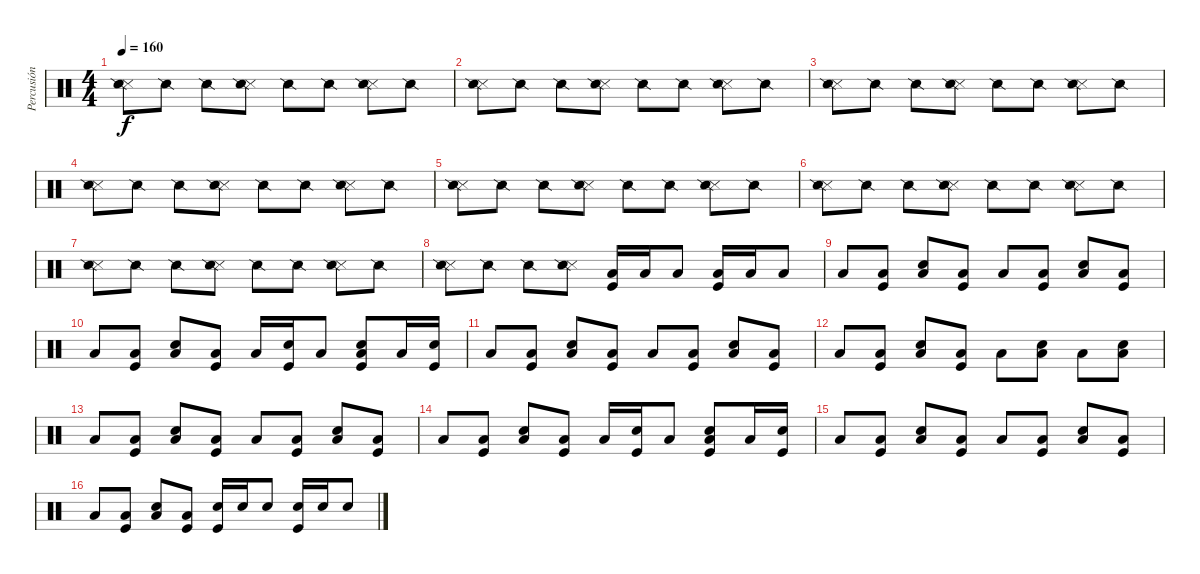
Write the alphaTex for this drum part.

\track ("Percusión" "Percusión") {instrument percussion}
\staff {score}
\articulation defaults
\ts (4 4)
\tempo 160
\clef neutral
\ks c
("Snare (side stick) 3" "Snare (side stick) 2").8{dy f} "Snare (side stick) 2".8 "Snare (side stick) 2".8 ("Snare (side stick) 3" "Snare (side stick) 2").8 "Snare (side stick) 2".8 "Snare (side stick) 2".8 ("Snare (side stick) 3" "Snare (side stick) 2").8 "Snare (side stick) 2".8 |
("Snare (side stick) 3" "Snare (side stick) 2").8 "Snare (side stick) 2".8 "Snare (side stick) 2".8 ("Snare (side stick) 3" "Snare (side stick) 2").8 "Snare (side stick) 2".8 "Snare (side stick) 2".8 ("Snare (side stick) 3" "Snare (side stick) 2").8 "Snare (side stick) 2".8 |
("Snare (side stick) 3" "Snare (side stick) 2").8 "Snare (side stick) 2".8 "Snare (side stick) 2".8 ("Snare (side stick) 3" "Snare (side stick) 2").8 "Snare (side stick) 2".8 "Snare (side stick) 2".8 ("Snare (side stick) 3" "Snare (side stick) 2").8 "Snare (side stick) 2".8 |
("Snare (side stick) 3" "Snare (side stick) 2").8 "Snare (side stick) 2".8 "Snare (side stick) 2".8 ("Snare (side stick) 3" "Snare (side stick) 2").8 "Snare (side stick) 2".8 "Snare (side stick) 2".8 ("Snare (side stick) 3" "Snare (side stick) 2").8 "Snare (side stick) 2".8 |
("Snare (side stick) 3" "Snare (side stick) 2").8 "Snare (side stick) 2".8 "Snare (side stick) 2".8 ("Snare (side stick) 3" "Snare (side stick) 2").8 "Snare (side stick) 2".8 "Snare (side stick) 2".8 ("Snare (side stick) 3" "Snare (side stick) 2").8 "Snare (side stick) 2".8 |
("Snare (side stick) 3" "Snare (side stick) 2").8 "Snare (side stick) 2".8 "Snare (side stick) 2".8 ("Snare (side stick) 3" "Snare (side stick) 2").8 "Snare (side stick) 2".8 "Snare (side stick) 2".8 ("Snare (side stick) 3" "Snare (side stick) 2").8 "Snare (side stick) 2".8 |
("Snare (side stick) 3" "Snare (side stick) 2").8 "Snare (side stick) 2".8 "Snare (side stick) 2".8 ("Snare (side stick) 3" "Snare (side stick) 2").8 "Snare (side stick) 2".8 "Snare (side stick) 2".8 ("Snare (side stick) 3" "Snare (side stick) 2").8 "Snare (side stick) 2".8 |
("Snare (side stick) 3" "Snare (side stick) 2").8 "Snare (side stick) 2".8 "Snare (side stick) 2".8 ("Snare (side stick) 3" "Snare (side stick) 2").8 ("Low Tom (hit)" "Kick (hit)").16 "Low Tom (hit)".16 "Low Tom (hit)".8 ("Low Tom (hit)" "Kick (hit)").16 "Low Tom (hit)".16 "Low Tom (hit)".8 |
"Low Floor Tom (hit)".8 ("Low Floor Tom (hit)" "Kick (hit)").8 ("Electric Snare (hit)" "Low Floor Tom (hit)").8 ("Low Floor Tom (hit)" "Kick (hit)").8 "Low Floor Tom (hit)".8 ("Low Floor Tom (hit)" "Kick (hit)").8 ("Electric Snare (hit)" "Low Floor Tom (hit)").8 ("Low Floor Tom (hit)" "Kick (hit)").8 |
"Low Floor Tom (hit)".8 ("Low Floor Tom (hit)" "Kick (hit)").8 ("Electric Snare (hit)" "Low Floor Tom (hit)").8 ("Low Floor Tom (hit)" "Kick (hit)").8 "Low Floor Tom (hit)".16 ("Electric Snare (hit)" "Kick (hit)").16 "Low Floor Tom (hit)".8 ("Electric Snare (hit)" "Low Floor Tom (hit)" "Kick (hit)").8 "Low Floor Tom (hit)".16 ("Electric Snare (hit)" "Kick (hit)").16 |
"Low Floor Tom (hit)".8 ("Low Floor Tom (hit)" "Kick (hit)").8 ("Electric Snare (hit)" "Low Floor Tom (hit)").8 ("Low Floor Tom (hit)" "Kick (hit)").8 "Low Floor Tom (hit)".8 ("Low Floor Tom (hit)" "Kick (hit)").8 ("Electric Snare (hit)" "Low Floor Tom (hit)").8 ("Low Floor Tom (hit)" "Kick (hit)").8 |
"Low Floor Tom (hit)".8 ("Low Floor Tom (hit)" "Kick (hit)").8 ("Electric Snare (hit)" "Low Floor Tom (hit)").8 ("Low Floor Tom (hit)" "Kick (hit)").8 "Low Floor Tom (hit)".8 ("Electric Snare (hit)" "Low Floor Tom (hit)").8 "Low Floor Tom (hit)".8 ("Electric Snare (hit)" "Low Floor Tom (hit)").8 |
"Low Floor Tom (hit)".8 ("Low Floor Tom (hit)" "Kick (hit)").8 ("Electric Snare (hit)" "Low Floor Tom (hit)").8 ("Low Floor Tom (hit)" "Kick (hit)").8 "Low Floor Tom (hit)".8 ("Low Floor Tom (hit)" "Kick (hit)").8 ("Electric Snare (hit)" "Low Floor Tom (hit)").8 ("Low Floor Tom (hit)" "Kick (hit)").8 |
"Low Floor Tom (hit)".8 ("Low Floor Tom (hit)" "Kick (hit)").8 ("Electric Snare (hit)" "Low Floor Tom (hit)").8 ("Low Floor Tom (hit)" "Kick (hit)").8 "Low Floor Tom (hit)".16 ("Electric Snare (hit)" "Kick (hit)").16 "Low Floor Tom (hit)".8 ("Electric Snare (hit)" "Low Floor Tom (hit)" "Kick (hit)").8 "Low Floor Tom (hit)".16 ("Electric Snare (hit)" "Kick (hit)").16 |
"Low Floor Tom (hit)".8 ("Low Floor Tom (hit)" "Kick (hit)").8 ("Electric Snare (hit)" "Low Floor Tom (hit)").8 ("Low Floor Tom (hit)" "Kick (hit)").8 "Low Floor Tom (hit)".8 ("Low Floor Tom (hit)" "Kick (hit)").8 ("Electric Snare (hit)" "Low Floor Tom (hit)").8 ("Low Floor Tom (hit)" "Kick (hit)").8 |
"Low Floor Tom (hit)".8 ("Low Floor Tom (hit)" "Kick (hit)").8 ("Electric Snare (hit)" "Low Floor Tom (hit)").8 ("Low Floor Tom (hit)" "Kick (hit)").8 ("Electric Snare (hit)" "Kick (hit)").16 "Electric Snare (hit)".16 "Electric Snare (hit)".8 ("Electric Snare (hit)" "Kick (hit)").16 "Electric Snare (hit)".16 "Electric Snare (hit)".8
